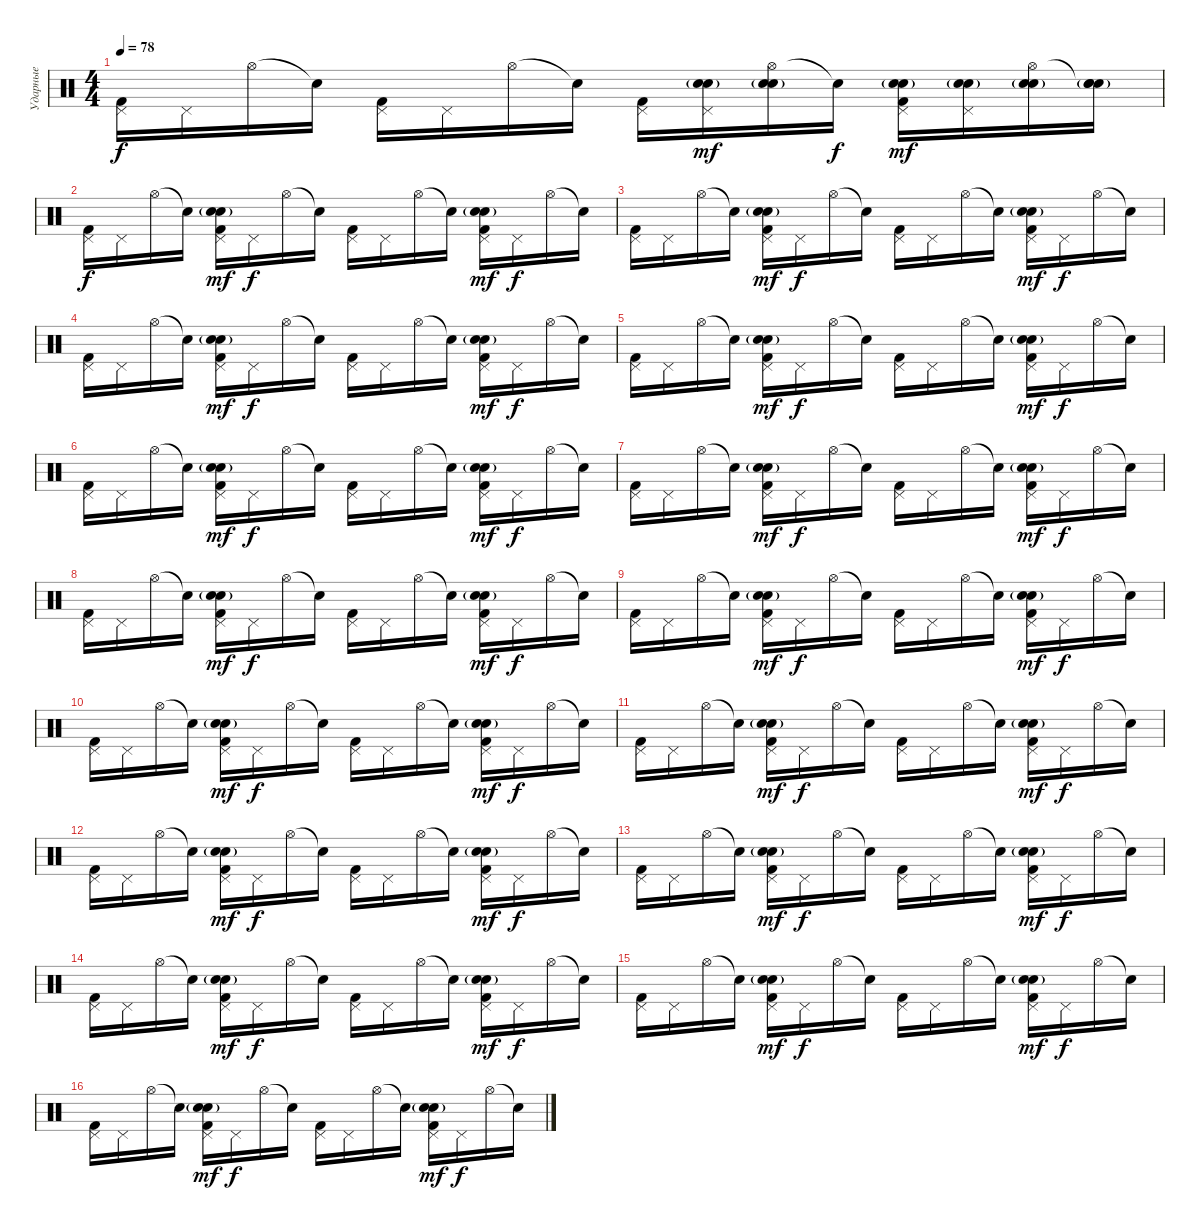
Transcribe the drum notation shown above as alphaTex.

\track ("Ударные" "Ударные") {instrument percussion}
\staff {score}
\articulation defaults
\ts (4 4)
\tempo 78
\clef neutral
\ks c
("Pedal Hi-Hat (hit)" "Kick (hit) 2").16{dy f} "Pedal Hi-Hat (hit)".16 "Hi-Hat (open)".16 "Snare (hit)"{t}.16 ("Pedal Hi-Hat (hit)" "Kick (hit) 2").16 "Pedal Hi-Hat (hit)".16 "Hi-Hat (open)".16 "Snare (hit)"{t}.16 ("Pedal Hi-Hat (hit)" "Kick (hit) 2").16 ("Pedal Hi-Hat (hit)" "Snare (hit) 2" "Electric Snare (hit)"{g}).16{dy mf} ("Hi-Hat (open)" "Snare (hit) 2" "Electric Snare (hit)"{g}).16 "Snare (hit)"{t}.16{dy f} ("Pedal Hi-Hat (hit)" "Snare (hit) 2" "Electric Snare (hit)"{g} "Kick (hit) 2").16{dy mf} ("Pedal Hi-Hat (hit)" "Snare (hit) 2" "Electric Snare (hit)"{g}).16 ("Hi-Hat (open)" "Snare (hit) 2" "Electric Snare (hit)"{g}).16 ("Snare (hit)"{t} "Snare (hit) 2" "Electric Snare (hit)"{g}).16 |
("Pedal Hi-Hat (hit)" "Kick (hit) 2").16{dy f} "Pedal Hi-Hat (hit)".16 "Hi-Hat (open)".16 "Snare (hit)"{t}.16 ("Pedal Hi-Hat (hit)" "Snare (hit) 2" "Electric Snare (hit)"{g} "Kick (hit) 2").16{dy mf} "Pedal Hi-Hat (hit)".16{dy f} "Hi-Hat (open)".16 "Snare (hit)"{t}.16 ("Pedal Hi-Hat (hit)" "Kick (hit) 2").16 "Pedal Hi-Hat (hit)".16 "Hi-Hat (open)".16 "Snare (hit)"{t}.16 ("Pedal Hi-Hat (hit)" "Snare (hit) 2" "Electric Snare (hit)"{g} "Kick (hit) 2").16{dy mf} "Pedal Hi-Hat (hit)".16{dy f} "Hi-Hat (open)".16 "Snare (hit)"{t}.16 |
("Pedal Hi-Hat (hit)" "Kick (hit) 2").16 "Pedal Hi-Hat (hit)".16 "Hi-Hat (open)".16 "Snare (hit)"{t}.16 ("Pedal Hi-Hat (hit)" "Snare (hit) 2" "Electric Snare (hit)"{g} "Kick (hit) 2").16{dy mf} "Pedal Hi-Hat (hit)".16{dy f} "Hi-Hat (open)".16 "Snare (hit)"{t}.16 ("Pedal Hi-Hat (hit)" "Kick (hit) 2").16 "Pedal Hi-Hat (hit)".16 "Hi-Hat (open)".16 "Snare (hit)"{t}.16 ("Pedal Hi-Hat (hit)" "Snare (hit) 2" "Electric Snare (hit)"{g} "Kick (hit) 2").16{dy mf} "Pedal Hi-Hat (hit)".16{dy f} "Hi-Hat (open)".16 "Snare (hit)"{t}.16 |
("Pedal Hi-Hat (hit)" "Kick (hit) 2").16 "Pedal Hi-Hat (hit)".16 "Hi-Hat (open)".16 "Snare (hit)"{t}.16 ("Pedal Hi-Hat (hit)" "Snare (hit) 2" "Electric Snare (hit)"{g} "Kick (hit) 2").16{dy mf} "Pedal Hi-Hat (hit)".16{dy f} "Hi-Hat (open)".16 "Snare (hit)"{t}.16 ("Pedal Hi-Hat (hit)" "Kick (hit) 2").16 "Pedal Hi-Hat (hit)".16 "Hi-Hat (open)".16 "Snare (hit)"{t}.16 ("Pedal Hi-Hat (hit)" "Snare (hit) 2" "Electric Snare (hit)"{g} "Kick (hit) 2").16{dy mf} "Pedal Hi-Hat (hit)".16{dy f} "Hi-Hat (open)".16 "Snare (hit)"{t}.16 |
("Pedal Hi-Hat (hit)" "Kick (hit) 2").16 "Pedal Hi-Hat (hit)".16 "Hi-Hat (open)".16 "Snare (hit)"{t}.16 ("Pedal Hi-Hat (hit)" "Snare (hit) 2" "Electric Snare (hit)"{g} "Kick (hit) 2").16{dy mf} "Pedal Hi-Hat (hit)".16{dy f} "Hi-Hat (open)".16 "Snare (hit)"{t}.16 ("Pedal Hi-Hat (hit)" "Kick (hit) 2").16 "Pedal Hi-Hat (hit)".16 "Hi-Hat (open)".16 "Snare (hit)"{t}.16 ("Pedal Hi-Hat (hit)" "Snare (hit) 2" "Electric Snare (hit)"{g} "Kick (hit) 2").16{dy mf} "Pedal Hi-Hat (hit)".16{dy f} "Hi-Hat (open)".16 "Snare (hit)"{t}.16 |
("Pedal Hi-Hat (hit)" "Kick (hit) 2").16 "Pedal Hi-Hat (hit)".16 "Hi-Hat (open)".16 "Snare (hit)"{t}.16 ("Pedal Hi-Hat (hit)" "Snare (hit) 2" "Electric Snare (hit)"{g} "Kick (hit) 2").16{dy mf} "Pedal Hi-Hat (hit)".16{dy f} "Hi-Hat (open)".16 "Snare (hit)"{t}.16 ("Pedal Hi-Hat (hit)" "Kick (hit) 2").16 "Pedal Hi-Hat (hit)".16 "Hi-Hat (open)".16 "Snare (hit)"{t}.16 ("Pedal Hi-Hat (hit)" "Snare (hit) 2" "Electric Snare (hit)"{g} "Kick (hit) 2").16{dy mf} "Pedal Hi-Hat (hit)".16{dy f} "Hi-Hat (open)".16 "Snare (hit)"{t}.16 |
("Pedal Hi-Hat (hit)" "Kick (hit) 2").16 "Pedal Hi-Hat (hit)".16 "Hi-Hat (open)".16 "Snare (hit)"{t}.16 ("Pedal Hi-Hat (hit)" "Snare (hit) 2" "Electric Snare (hit)"{g} "Kick (hit) 2").16{dy mf} "Pedal Hi-Hat (hit)".16{dy f} "Hi-Hat (open)".16 "Snare (hit)"{t}.16 ("Pedal Hi-Hat (hit)" "Kick (hit) 2").16 "Pedal Hi-Hat (hit)".16 "Hi-Hat (open)".16 "Snare (hit)"{t}.16 ("Pedal Hi-Hat (hit)" "Snare (hit) 2" "Electric Snare (hit)"{g} "Kick (hit) 2").16{dy mf} "Pedal Hi-Hat (hit)".16{dy f} "Hi-Hat (open)".16 "Snare (hit)"{t}.16 |
("Pedal Hi-Hat (hit)" "Kick (hit) 2").16 "Pedal Hi-Hat (hit)".16 "Hi-Hat (open)".16 "Snare (hit)"{t}.16 ("Pedal Hi-Hat (hit)" "Snare (hit) 2" "Electric Snare (hit)"{g} "Kick (hit) 2").16{dy mf} "Pedal Hi-Hat (hit)".16{dy f} "Hi-Hat (open)".16 "Snare (hit)"{t}.16 ("Pedal Hi-Hat (hit)" "Kick (hit) 2").16 "Pedal Hi-Hat (hit)".16 "Hi-Hat (open)".16 "Snare (hit)"{t}.16 ("Pedal Hi-Hat (hit)" "Snare (hit) 2" "Electric Snare (hit)"{g} "Kick (hit) 2").16{dy mf} "Pedal Hi-Hat (hit)".16{dy f} "Hi-Hat (open)".16 "Snare (hit)"{t}.16 |
("Pedal Hi-Hat (hit)" "Kick (hit) 2").16 "Pedal Hi-Hat (hit)".16 "Hi-Hat (open)".16 "Snare (hit)"{t}.16 ("Pedal Hi-Hat (hit)" "Snare (hit) 2" "Electric Snare (hit)"{g} "Kick (hit) 2").16{dy mf} "Pedal Hi-Hat (hit)".16{dy f} "Hi-Hat (open)".16 "Snare (hit)"{t}.16 ("Pedal Hi-Hat (hit)" "Kick (hit) 2").16 "Pedal Hi-Hat (hit)".16 "Hi-Hat (open)".16 "Snare (hit)"{t}.16 ("Pedal Hi-Hat (hit)" "Snare (hit) 2" "Electric Snare (hit)"{g} "Kick (hit) 2").16{dy mf} "Pedal Hi-Hat (hit)".16{dy f} "Hi-Hat (open)".16 "Snare (hit)"{t}.16 |
("Pedal Hi-Hat (hit)" "Kick (hit) 2").16 "Pedal Hi-Hat (hit)".16 "Hi-Hat (open)".16 "Snare (hit)"{t}.16 ("Pedal Hi-Hat (hit)" "Snare (hit) 2" "Electric Snare (hit)"{g} "Kick (hit) 2").16{dy mf} "Pedal Hi-Hat (hit)".16{dy f} "Hi-Hat (open)".16 "Snare (hit)"{t}.16 ("Pedal Hi-Hat (hit)" "Kick (hit) 2").16 "Pedal Hi-Hat (hit)".16 "Hi-Hat (open)".16 "Snare (hit)"{t}.16 ("Pedal Hi-Hat (hit)" "Snare (hit) 2" "Electric Snare (hit)"{g} "Kick (hit) 2").16{dy mf} "Pedal Hi-Hat (hit)".16{dy f} "Hi-Hat (open)".16 "Snare (hit)"{t}.16 |
("Pedal Hi-Hat (hit)" "Kick (hit) 2").16 "Pedal Hi-Hat (hit)".16 "Hi-Hat (open)".16 "Snare (hit)"{t}.16 ("Pedal Hi-Hat (hit)" "Snare (hit) 2" "Electric Snare (hit)"{g} "Kick (hit) 2").16{dy mf} "Pedal Hi-Hat (hit)".16{dy f} "Hi-Hat (open)".16 "Snare (hit)"{t}.16 ("Pedal Hi-Hat (hit)" "Kick (hit) 2").16 "Pedal Hi-Hat (hit)".16 "Hi-Hat (open)".16 "Snare (hit)"{t}.16 ("Pedal Hi-Hat (hit)" "Snare (hit) 2" "Electric Snare (hit)"{g} "Kick (hit) 2").16{dy mf} "Pedal Hi-Hat (hit)".16{dy f} "Hi-Hat (open)".16 "Snare (hit)"{t}.16 |
("Pedal Hi-Hat (hit)" "Kick (hit) 2").16 "Pedal Hi-Hat (hit)".16 "Hi-Hat (open)".16 "Snare (hit)"{t}.16 ("Pedal Hi-Hat (hit)" "Snare (hit) 2" "Electric Snare (hit)"{g} "Kick (hit) 2").16{dy mf} "Pedal Hi-Hat (hit)".16{dy f} "Hi-Hat (open)".16 "Snare (hit)"{t}.16 ("Pedal Hi-Hat (hit)" "Kick (hit) 2").16 "Pedal Hi-Hat (hit)".16 "Hi-Hat (open)".16 "Snare (hit)"{t}.16 ("Pedal Hi-Hat (hit)" "Snare (hit) 2" "Electric Snare (hit)"{g} "Kick (hit) 2").16{dy mf} "Pedal Hi-Hat (hit)".16{dy f} "Hi-Hat (open)".16 "Snare (hit)"{t}.16 |
("Pedal Hi-Hat (hit)" "Kick (hit) 2").16 "Pedal Hi-Hat (hit)".16 "Hi-Hat (open)".16 "Snare (hit)"{t}.16 ("Pedal Hi-Hat (hit)" "Snare (hit) 2" "Electric Snare (hit)"{g} "Kick (hit) 2").16{dy mf} "Pedal Hi-Hat (hit)".16{dy f} "Hi-Hat (open)".16 "Snare (hit)"{t}.16 ("Pedal Hi-Hat (hit)" "Kick (hit) 2").16 "Pedal Hi-Hat (hit)".16 "Hi-Hat (open)".16 "Snare (hit)"{t}.16 ("Pedal Hi-Hat (hit)" "Snare (hit) 2" "Electric Snare (hit)"{g} "Kick (hit) 2").16{dy mf} "Pedal Hi-Hat (hit)".16{dy f} "Hi-Hat (open)".16 "Snare (hit)"{t}.16 |
("Pedal Hi-Hat (hit)" "Kick (hit) 2").16 "Pedal Hi-Hat (hit)".16 "Hi-Hat (open)".16 "Snare (hit)"{t}.16 ("Pedal Hi-Hat (hit)" "Snare (hit) 2" "Electric Snare (hit)"{g} "Kick (hit) 2").16{dy mf} "Pedal Hi-Hat (hit)".16{dy f} "Hi-Hat (open)".16 "Snare (hit)"{t}.16 ("Pedal Hi-Hat (hit)" "Kick (hit) 2").16 "Pedal Hi-Hat (hit)".16 "Hi-Hat (open)".16 "Snare (hit)"{t}.16 ("Pedal Hi-Hat (hit)" "Snare (hit) 2" "Electric Snare (hit)"{g} "Kick (hit) 2").16{dy mf} "Pedal Hi-Hat (hit)".16{dy f} "Hi-Hat (open)".16 "Snare (hit)"{t}.16 |
("Pedal Hi-Hat (hit)" "Kick (hit) 2").16 "Pedal Hi-Hat (hit)".16 "Hi-Hat (open)".16 "Snare (hit)"{t}.16 ("Pedal Hi-Hat (hit)" "Snare (hit) 2" "Electric Snare (hit)"{g} "Kick (hit) 2").16{dy mf} "Pedal Hi-Hat (hit)".16{dy f} "Hi-Hat (open)".16 "Snare (hit)"{t}.16 ("Pedal Hi-Hat (hit)" "Kick (hit) 2").16 "Pedal Hi-Hat (hit)".16 "Hi-Hat (open)".16 "Snare (hit)"{t}.16 ("Pedal Hi-Hat (hit)" "Snare (hit) 2" "Electric Snare (hit)"{g} "Kick (hit) 2").16{dy mf} "Pedal Hi-Hat (hit)".16{dy f} "Hi-Hat (open)".16 "Snare (hit)"{t}.16 |
("Pedal Hi-Hat (hit)" "Kick (hit) 2").16 "Pedal Hi-Hat (hit)".16 "Hi-Hat (open)".16 "Snare (hit)"{t}.16 ("Pedal Hi-Hat (hit)" "Snare (hit) 2" "Electric Snare (hit)"{g} "Kick (hit) 2").16{dy mf} "Pedal Hi-Hat (hit)".16{dy f} "Hi-Hat (open)".16 "Snare (hit)"{t}.16 ("Pedal Hi-Hat (hit)" "Kick (hit) 2").16 "Pedal Hi-Hat (hit)".16 "Hi-Hat (open)".16 "Snare (hit)"{t}.16 ("Pedal Hi-Hat (hit)" "Snare (hit) 2" "Electric Snare (hit)"{g} "Kick (hit) 2").16{dy mf} "Pedal Hi-Hat (hit)".16{dy f} "Hi-Hat (open)".16 "Snare (hit)"{t}.16
